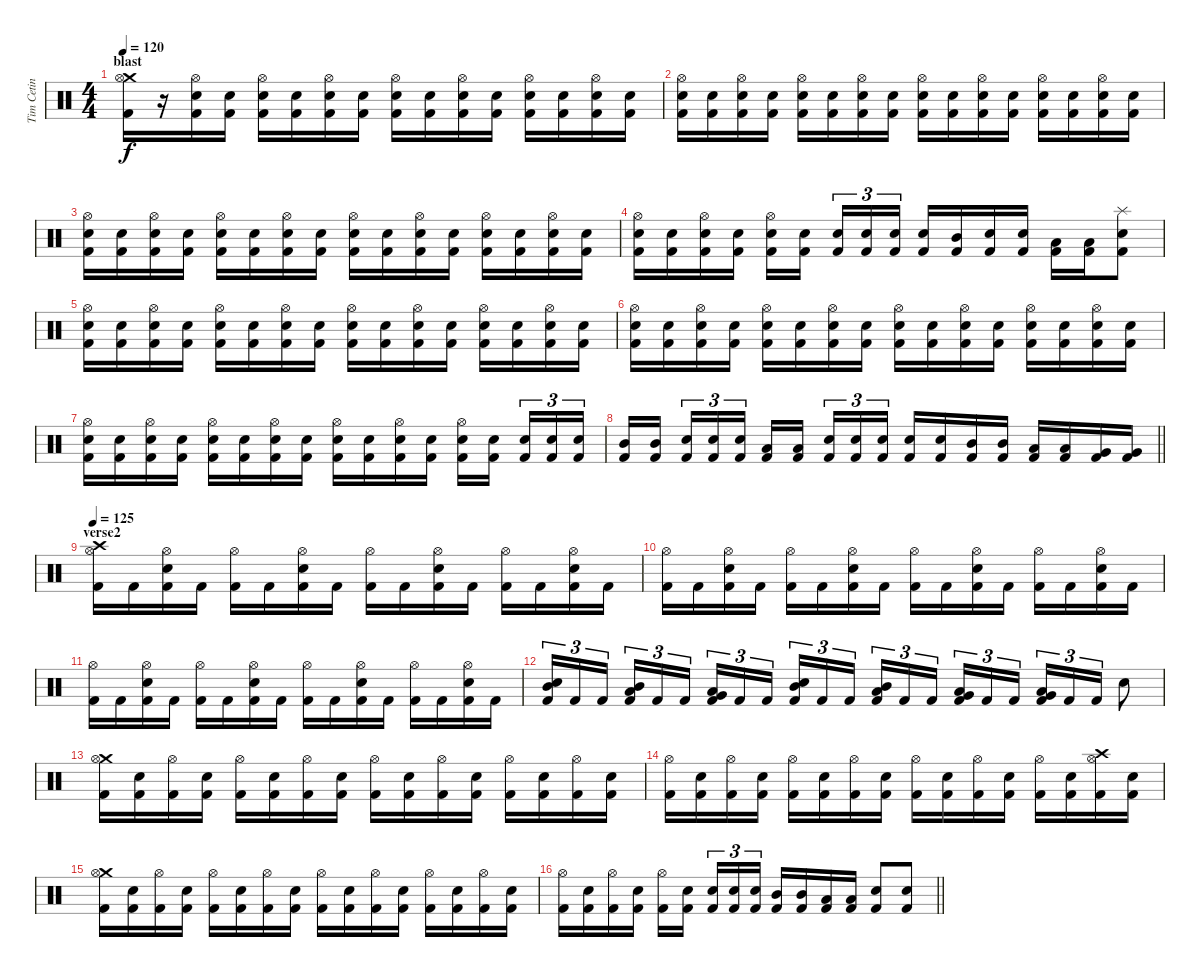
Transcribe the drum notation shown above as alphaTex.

\track ("Tim Cetin" "Tim Cetin") {instrument percussion}
\staff {score}
\articulation defaults
\ts (4 4)
\section ("" "blast")
\tempo 120
\clef neutral
\ks c
("Crash medium (hit)" "Hi-Hat (open)" "Kick (hit) 2").16{dy f} r.16 ("Hi-Hat (open)" "Electric Snare (hit)" "Kick (hit) 2").16 ("Electric Snare (hit)" "Kick (hit) 2").16 ("Hi-Hat (open)" "Electric Snare (hit)" "Kick (hit) 2").16 ("Electric Snare (hit)" "Kick (hit) 2").16 ("Hi-Hat (open)" "Electric Snare (hit)" "Kick (hit) 2").16 ("Electric Snare (hit)" "Kick (hit) 2").16 ("Hi-Hat (open)" "Electric Snare (hit)" "Kick (hit) 2").16 ("Electric Snare (hit)" "Kick (hit) 2").16 ("Hi-Hat (open)" "Electric Snare (hit)" "Kick (hit) 2").16 ("Electric Snare (hit)" "Kick (hit) 2").16 ("Hi-Hat (open)" "Electric Snare (hit)" "Kick (hit) 2").16 ("Electric Snare (hit)" "Kick (hit) 2").16 ("Hi-Hat (open)" "Electric Snare (hit)" "Kick (hit) 2").16 ("Electric Snare (hit)" "Kick (hit) 2").16 |
("Hi-Hat (open)" "Electric Snare (hit)" "Kick (hit) 2").16 ("Electric Snare (hit)" "Kick (hit) 2").16 ("Hi-Hat (open)" "Electric Snare (hit)" "Kick (hit) 2").16 ("Electric Snare (hit)" "Kick (hit) 2").16 ("Hi-Hat (open)" "Electric Snare (hit)" "Kick (hit) 2").16 ("Electric Snare (hit)" "Kick (hit) 2").16 ("Hi-Hat (open)" "Electric Snare (hit)" "Kick (hit) 2").16 ("Electric Snare (hit)" "Kick (hit) 2").16 ("Hi-Hat (open)" "Electric Snare (hit)" "Kick (hit) 2").16 ("Electric Snare (hit)" "Kick (hit) 2").16 ("Hi-Hat (open)" "Electric Snare (hit)" "Kick (hit) 2").16 ("Electric Snare (hit)" "Kick (hit) 2").16 ("Hi-Hat (open)" "Electric Snare (hit)" "Kick (hit) 2").16 ("Electric Snare (hit)" "Kick (hit) 2").16 ("Hi-Hat (open)" "Electric Snare (hit)" "Kick (hit) 2").16 ("Electric Snare (hit)" "Kick (hit) 2").16 |
("Hi-Hat (open)" "Electric Snare (hit)" "Kick (hit) 2").16 ("Electric Snare (hit)" "Kick (hit) 2").16 ("Hi-Hat (open)" "Electric Snare (hit)" "Kick (hit) 2").16 ("Electric Snare (hit)" "Kick (hit) 2").16 ("Hi-Hat (open)" "Electric Snare (hit)" "Kick (hit) 2").16 ("Electric Snare (hit)" "Kick (hit) 2").16 ("Hi-Hat (open)" "Electric Snare (hit)" "Kick (hit) 2").16 ("Electric Snare (hit)" "Kick (hit) 2").16 ("Hi-Hat (open)" "Electric Snare (hit)" "Kick (hit) 2").16 ("Electric Snare (hit)" "Kick (hit) 2").16 ("Hi-Hat (open)" "Electric Snare (hit)" "Kick (hit) 2").16 ("Electric Snare (hit)" "Kick (hit) 2").16 ("Hi-Hat (open)" "Electric Snare (hit)" "Kick (hit) 2").16 ("Electric Snare (hit)" "Kick (hit) 2").16 ("Hi-Hat (open)" "Electric Snare (hit)" "Kick (hit) 2").16 ("Electric Snare (hit)" "Kick (hit) 2").16 |
("Hi-Hat (open)" "Electric Snare (hit)" "Kick (hit) 2").16 ("Electric Snare (hit)" "Kick (hit) 2").16 ("Hi-Hat (open)" "Electric Snare (hit)" "Kick (hit) 2").16 ("Electric Snare (hit)" "Kick (hit) 2").16 ("Hi-Hat (open)" "Electric Snare (hit)" "Kick (hit) 2").16 ("Electric Snare (hit)" "Kick (hit) 2").16{beam splitsecondary} ("Electric Snare (hit)" "Kick (hit) 2").16{tu (3 2)} ("Electric Snare (hit)" "Kick (hit) 2").16{tu (3 2)} ("Electric Snare (hit)" "Kick (hit) 2").16{tu (3 2)} ("Electric Snare (hit)" "Kick (hit) 2").16 ("Mid Tom (hit)" "Kick (hit) 2").16 ("Electric Snare (hit)" "Kick (hit) 2").16 ("Electric Snare (hit)" "Kick (hit) 2").16 ("Low Tom (hit)" "Kick (hit) 2").16 ("Low Tom (hit)" "Kick (hit) 2").16 ("Splash (hit)" "Electric Snare (hit)" "Kick (hit) 2").8 |
("Hi-Hat (open)" "Electric Snare (hit)" "Kick (hit) 2").16 ("Electric Snare (hit)" "Kick (hit) 2").16 ("Hi-Hat (open)" "Electric Snare (hit)" "Kick (hit) 2").16 ("Electric Snare (hit)" "Kick (hit) 2").16 ("Hi-Hat (open)" "Electric Snare (hit)" "Kick (hit) 2").16 ("Electric Snare (hit)" "Kick (hit) 2").16 ("Hi-Hat (open)" "Electric Snare (hit)" "Kick (hit) 2").16 ("Electric Snare (hit)" "Kick (hit) 2").16 ("Hi-Hat (open)" "Electric Snare (hit)" "Kick (hit) 2").16 ("Electric Snare (hit)" "Kick (hit) 2").16 ("Hi-Hat (open)" "Electric Snare (hit)" "Kick (hit) 2").16 ("Electric Snare (hit)" "Kick (hit) 2").16 ("Hi-Hat (open)" "Electric Snare (hit)" "Kick (hit) 2").16 ("Electric Snare (hit)" "Kick (hit) 2").16 ("Hi-Hat (open)" "Electric Snare (hit)" "Kick (hit) 2").16 ("Electric Snare (hit)" "Kick (hit) 2").16 |
("Hi-Hat (open)" "Electric Snare (hit)" "Kick (hit) 2").16 ("Electric Snare (hit)" "Kick (hit) 2").16 ("Hi-Hat (open)" "Electric Snare (hit)" "Kick (hit) 2").16 ("Electric Snare (hit)" "Kick (hit) 2").16 ("Hi-Hat (open)" "Electric Snare (hit)" "Kick (hit) 2").16 ("Electric Snare (hit)" "Kick (hit) 2").16 ("Hi-Hat (open)" "Electric Snare (hit)" "Kick (hit) 2").16 ("Electric Snare (hit)" "Kick (hit) 2").16 ("Hi-Hat (open)" "Electric Snare (hit)" "Kick (hit) 2").16 ("Electric Snare (hit)" "Kick (hit) 2").16 ("Hi-Hat (open)" "Electric Snare (hit)" "Kick (hit) 2").16 ("Electric Snare (hit)" "Kick (hit) 2").16 ("Hi-Hat (open)" "Electric Snare (hit)" "Kick (hit) 2").16 ("Electric Snare (hit)" "Kick (hit) 2").16 ("Hi-Hat (open)" "Electric Snare (hit)" "Kick (hit) 2").16 ("Electric Snare (hit)" "Kick (hit) 2").16 |
("Hi-Hat (open)" "Electric Snare (hit)" "Kick (hit) 2").16 ("Electric Snare (hit)" "Kick (hit) 2").16 ("Hi-Hat (open)" "Electric Snare (hit)" "Kick (hit) 2").16 ("Electric Snare (hit)" "Kick (hit) 2").16 ("Hi-Hat (open)" "Electric Snare (hit)" "Kick (hit) 2").16 ("Electric Snare (hit)" "Kick (hit) 2").16 ("Hi-Hat (open)" "Electric Snare (hit)" "Kick (hit) 2").16 ("Electric Snare (hit)" "Kick (hit) 2").16 ("Hi-Hat (open)" "Electric Snare (hit)" "Kick (hit) 2").16 ("Electric Snare (hit)" "Kick (hit) 2").16 ("Hi-Hat (open)" "Electric Snare (hit)" "Kick (hit) 2").16 ("Electric Snare (hit)" "Kick (hit) 2").16 ("Hi-Hat (open)" "Electric Snare (hit)" "Kick (hit) 2").16 ("Electric Snare (hit)" "Kick (hit) 2").16{beam splitsecondary} ("Electric Snare (hit)" "Kick (hit) 2").16{tu (3 2)} ("Electric Snare (hit)" "Kick (hit) 2").16{tu (3 2)} ("Electric Snare (hit)" "Kick (hit) 2").16{tu (3 2)} |
\barLineRight lightlight
("Mid Tom (hit)" "Kick (hit) 2").16 ("Mid Tom (hit)" "Kick (hit) 2").16{beam splitsecondary} ("Electric Snare (hit)" "Kick (hit) 2").16{tu (3 2)} ("Electric Snare (hit)" "Kick (hit) 2").16{tu (3 2)} ("Electric Snare (hit)" "Kick (hit) 2").16{tu (3 2)} ("Low Tom (hit)" "Kick (hit) 2").16 ("Low Tom (hit)" "Kick (hit) 2").16{beam splitsecondary} ("Electric Snare (hit)" "Kick (hit) 2").16{tu (3 2)} ("Electric Snare (hit)" "Kick (hit) 2").16{tu (3 2)} ("Electric Snare (hit)" "Kick (hit) 2").16{tu (3 2)} ("Electric Snare (hit)" "Kick (hit) 2").16 ("Electric Snare (hit)" "Kick (hit) 2").16 ("Mid Tom (hit)" "Kick (hit) 2").16 ("Mid Tom (hit)" "Kick (hit) 2").16 ("Low Tom (hit)" "Kick (hit) 2").16 ("Low Tom (hit)" "Kick (hit) 2").16 ("Very Low Tom (hit)" "Kick (hit) 2").16 ("Very Low Tom (hit)" "Kick (hit) 2").16 |
\section ("" "verse2")
\tempo 125
("Crash high (hit)" "Hi-Hat (open)" "Kick (hit) 2").16 "Kick (hit) 2".16 ("Hi-Hat (open)" "Electric Snare (hit)" "Kick (hit) 2").16 "Kick (hit) 2".16 ("Hi-Hat (open)" "Kick (hit) 2").16 "Kick (hit) 2".16 ("Hi-Hat (open)" "Electric Snare (hit)" "Kick (hit) 2").16 "Kick (hit) 2".16 ("Hi-Hat (open)" "Kick (hit) 2").16 "Kick (hit) 2".16 ("Hi-Hat (open)" "Electric Snare (hit)" "Kick (hit) 2").16 "Kick (hit) 2".16 ("Hi-Hat (open)" "Kick (hit) 2").16 "Kick (hit) 2".16 ("Hi-Hat (open)" "Electric Snare (hit)" "Kick (hit) 2").16 "Kick (hit) 2".16 |
("Hi-Hat (open)" "Kick (hit) 2").16 "Kick (hit) 2".16 ("Hi-Hat (open)" "Electric Snare (hit)" "Kick (hit) 2").16 "Kick (hit) 2".16 ("Hi-Hat (open)" "Kick (hit) 2").16 "Kick (hit) 2".16 ("Hi-Hat (open)" "Electric Snare (hit)" "Kick (hit) 2").16 "Kick (hit) 2".16 ("Hi-Hat (open)" "Kick (hit) 2").16 "Kick (hit) 2".16 ("Hi-Hat (open)" "Electric Snare (hit)" "Kick (hit) 2").16 "Kick (hit) 2".16 ("Hi-Hat (open)" "Kick (hit) 2").16 "Kick (hit) 2".16 ("Hi-Hat (open)" "Electric Snare (hit)" "Kick (hit) 2").16 "Kick (hit) 2".16 |
("Hi-Hat (open)" "Kick (hit) 2").16 "Kick (hit) 2".16 ("Hi-Hat (open)" "Electric Snare (hit)" "Kick (hit) 2").16 "Kick (hit) 2".16 ("Hi-Hat (open)" "Kick (hit) 2").16 "Kick (hit) 2".16 ("Hi-Hat (open)" "Electric Snare (hit)" "Kick (hit) 2").16 "Kick (hit) 2".16 ("Hi-Hat (open)" "Kick (hit) 2").16 "Kick (hit) 2".16 ("Hi-Hat (open)" "Electric Snare (hit)" "Kick (hit) 2").16 "Kick (hit) 2".16 ("Hi-Hat (open)" "Kick (hit) 2").16 "Kick (hit) 2".16 ("Hi-Hat (open)" "Electric Snare (hit)" "Kick (hit) 2").16 "Kick (hit) 2".16 |
("Mid Tom (hit)" "Electric Snare (hit)" "Kick (hit) 2").16{tu (3 2)} "Kick (hit) 2".16{tu (3 2)} "Kick (hit) 2".16{tu (3 2) beam splitsecondary} ("Low Tom (hit)" "Mid Tom (hit)" "Kick (hit) 2").16{tu (3 2)} "Kick (hit) 2".16{tu (3 2)} "Kick (hit) 2".16{tu (3 2)} ("Very Low Tom (hit)" "Low Tom (hit)" "Kick (hit) 2").16{tu (3 2)} "Kick (hit) 2".16{tu (3 2)} "Kick (hit) 2".16{tu (3 2) beam splitsecondary} ("Mid Tom (hit)" "Snare (hit) 2" "Kick (hit) 2").16{tu (3 2)} "Kick (hit) 2".16{tu (3 2)} "Kick (hit) 2".16{tu (3 2)} ("Mid Tom (hit)" "Low Tom (hit)" "Kick (hit) 2").16{tu (3 2)} "Kick (hit) 2".16{tu (3 2)} "Kick (hit) 2".16{tu (3 2) beam splitsecondary} ("Very Low Tom (hit)" "Low Tom (hit)" "Kick (hit) 2").16{tu (3 2)} "Kick (hit) 2".16{tu (3 2)} "Kick (hit) 2".16{tu (3 2)} ("Low Floor Tom (hit)" "Very Low Tom (hit)" "Kick (hit) 2").16{tu (3 2)} "Kick (hit) 2".16{tu (3 2)} "Kick (hit) 2".16{tu (3 2)} "Electric Snare (hit)".8 |
("Crash medium (hit)" "Hi-Hat (open)" "Kick (hit) 2").16 ("Electric Snare (hit)" "Kick (hit) 2").16 ("Hi-Hat (open)" "Kick (hit) 2").16 ("Electric Snare (hit)" "Kick (hit) 2").16 ("Hi-Hat (open)" "Kick (hit) 2").16 ("Electric Snare (hit)" "Kick (hit) 2").16 ("Hi-Hat (open)" "Kick (hit) 2").16 ("Electric Snare (hit)" "Kick (hit) 2").16 ("Hi-Hat (open)" "Kick (hit) 2").16 ("Electric Snare (hit)" "Kick (hit) 2").16 ("Hi-Hat (open)" "Kick (hit) 2").16 ("Electric Snare (hit)" "Kick (hit) 2").16 ("Hi-Hat (open)" "Kick (hit) 2").16 ("Electric Snare (hit)" "Kick (hit) 2").16 ("Hi-Hat (open)" "Kick (hit) 2").16 ("Electric Snare (hit)" "Kick (hit) 2").16 |
("Hi-Hat (open)" "Kick (hit) 2").16 ("Electric Snare (hit)" "Kick (hit) 2").16 ("Hi-Hat (open)" "Kick (hit) 2").16 ("Electric Snare (hit)" "Kick (hit) 2").16 ("Hi-Hat (open)" "Kick (hit) 2").16 ("Electric Snare (hit)" "Kick (hit) 2").16 ("Hi-Hat (open)" "Kick (hit) 2").16 ("Electric Snare (hit)" "Kick (hit) 2").16 ("Hi-Hat (open)" "Kick (hit) 2").16 ("Electric Snare (hit)" "Kick (hit) 2").16 ("Hi-Hat (open)" "Kick (hit) 2").16 ("Electric Snare (hit)" "Kick (hit) 2").16 ("Hi-Hat (open)" "Kick (hit) 2").16 ("Electric Snare (hit)" "Kick (hit) 2").16 ("Crash high (hit)" "Hi-Hat (open)" "Kick (hit) 2").16 ("Electric Snare (hit)" "Kick (hit) 2").16 |
("Crash medium (hit)" "Hi-Hat (open)" "Kick (hit) 2").16 ("Electric Snare (hit)" "Kick (hit) 2").16 ("Hi-Hat (open)" "Kick (hit) 2").16 ("Electric Snare (hit)" "Kick (hit) 2").16 ("Hi-Hat (open)" "Kick (hit) 2").16 ("Electric Snare (hit)" "Kick (hit) 2").16 ("Hi-Hat (open)" "Kick (hit) 2").16 ("Electric Snare (hit)" "Kick (hit) 2").16 ("Hi-Hat (open)" "Kick (hit) 2").16 ("Electric Snare (hit)" "Kick (hit) 2").16 ("Hi-Hat (open)" "Kick (hit) 2").16 ("Electric Snare (hit)" "Kick (hit) 2").16 ("Hi-Hat (open)" "Kick (hit) 2").16 ("Electric Snare (hit)" "Kick (hit) 2").16 ("Hi-Hat (open)" "Kick (hit) 2").16 ("Electric Snare (hit)" "Kick (hit) 2").16 |
\barLineRight lightlight
("Hi-Hat (open)" "Kick (hit) 2").16 ("Electric Snare (hit)" "Kick (hit) 2").16 ("Hi-Hat (open)" "Kick (hit) 2").16 ("Electric Snare (hit)" "Kick (hit) 2").16 ("Hi-Hat (open)" "Kick (hit) 2").16 ("Electric Snare (hit)" "Kick (hit) 2").16{beam splitsecondary} ("Electric Snare (hit)" "Kick (hit) 2").16{tu (3 2)} ("Electric Snare (hit)" "Kick (hit) 2").16{tu (3 2)} ("Electric Snare (hit)" "Kick (hit) 2").16{tu (3 2)} ("Mid Tom (hit)" "Kick (hit) 2").16 ("Mid Tom (hit)" "Kick (hit) 2").16 ("Low Tom (hit)" "Kick (hit) 2").16 ("Low Tom (hit)" "Kick (hit) 2").16 ("Electric Snare (hit)" "Kick (hit) 2").8 ("Electric Snare (hit)" "Kick (hit) 2").8
